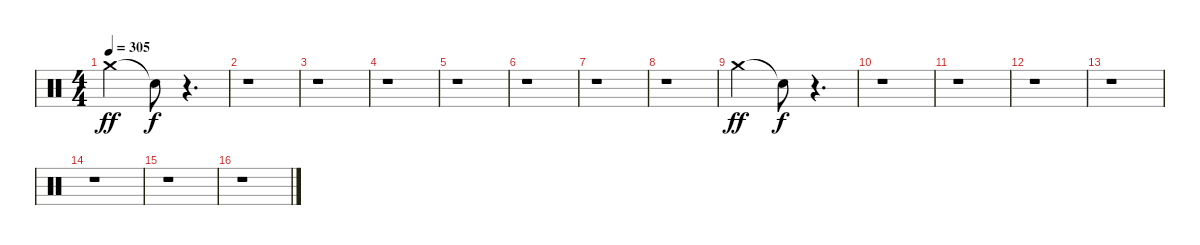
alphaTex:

\track "" {instrument percussion}
\staff {score}
\articulation defaults
\ts (4 4)
\tempo 305
\clef neutral
\ks c "Crash medium (hit)".2{dy ff} "Snare (hit)"{t}.8{dy f}
r.4{d} |
r.1 |
r.1 |
r.1 |
r.1 |
r.1 |
r.1 |
r.1 |
"Crash medium (hit)".2{dy ff} "Snare (hit)"{t}.8{dy f} r.4{d} |
r.1 |
r.1 |
r.1 |
r.1 |
r.1 |
r.1 |
r.1
